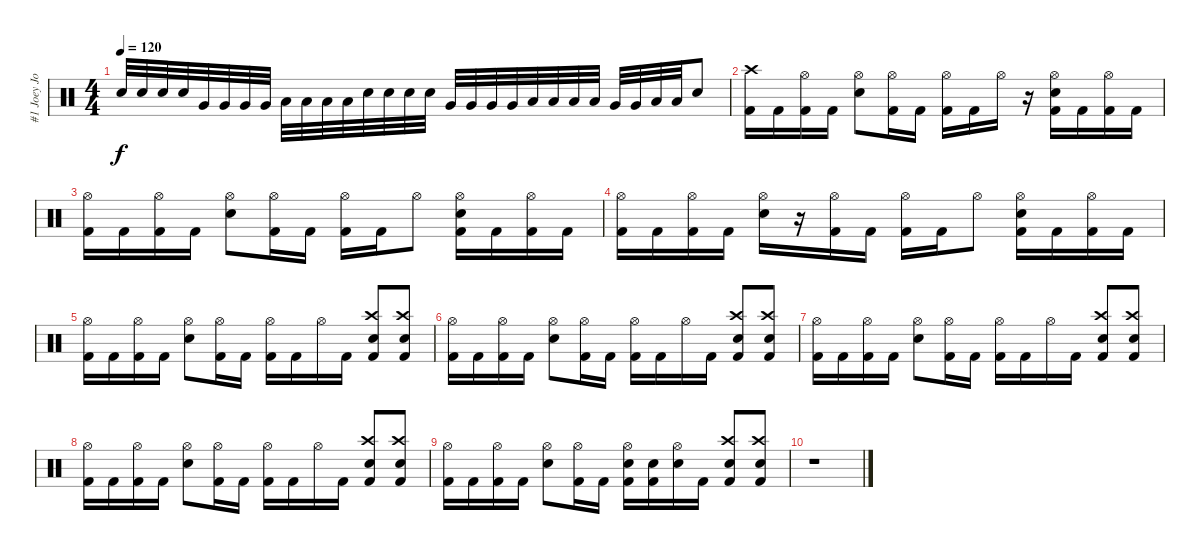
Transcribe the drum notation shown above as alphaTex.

\track ("#1 Joey Jordison" "#1 Joey Jo") {instrument percussion}
\staff {score}
\articulation defaults
\ts (4 4)
\tempo 120
\clef neutral
\ks c "Electric Snare (hit)".32{dy f} "Electric Snare (hit)".32 "Electric Snare (hit)".32 "Electric Snare (hit)".32 "Very Low Tom (hit)".32 "Very Low Tom (hit)".32 "Very Low Tom (hit)".32 "Very Low Tom (hit)".32 "Low Floor Tom (hit)".32 "Low Floor Tom (hit)".32 "Low Floor Tom (hit)".32 "Low Floor Tom (hit)".32 "Electric Snare (hit)".32 "Electric Snare (hit)".32 "Electric Snare (hit)".32 "Electric Snare (hit)".32 "Very Low Tom (hit)".32 "Very Low Tom (hit)".32 "Very Low Tom (hit)".32 "Very Low Tom (hit)".32 "Low Floor Tom (hit)".32 "Low Floor Tom (hit)".32 "Low Floor Tom (hit)".32 "Low Floor Tom (hit)".32 "Very Low Tom (hit)".32 "Very Low Tom (hit)".32 "Low Floor Tom (hit)".32 "Low Floor Tom (hit)".32 "Electric Snare (hit)".8
|
("Crash high (hit)" "Kick (hit) 2").16 "Kick (hit) 2".16 ("Hi-Hat (open)" "Kick (hit) 2").16 "Kick (hit) 2".16 ("Hi-Hat (open)" "Electric Snare (hit)").8 ("Hi-Hat (open)" "Kick (hit) 2").16 "Kick (hit) 2".16 ("Hi-Hat (open)" "Kick (hit) 2").16 "Kick (hit) 2".16 "Hi-Hat (open)".16 r.16 ("Hi-Hat (open)" "Electric Snare (hit)" "Kick (hit) 2").16 "Kick (hit) 2".16 ("Hi-Hat (open)" "Kick (hit) 2").16 "Kick (hit) 2".16 |
("Hi-Hat (open)" "Kick (hit) 2").16 "Kick (hit) 2".16 ("Hi-Hat (open)" "Kick (hit) 2").16 "Kick (hit) 2".16 ("Hi-Hat (open)" "Electric Snare (hit)").8 ("Hi-Hat (open)" "Kick (hit) 2").16 "Kick (hit) 2".16 ("Hi-Hat (open)" "Kick (hit) 2").16 "Kick (hit) 2".16 "Hi-Hat (open)".8 ("Hi-Hat (open)" "Electric Snare (hit)" "Kick (hit) 2").16 "Kick (hit) 2".16 ("Hi-Hat (open)" "Kick (hit) 2").16 "Kick (hit) 2".16 |
("Hi-Hat (open)" "Kick (hit) 2").16 "Kick (hit) 2".16 ("Hi-Hat (open)" "Kick (hit) 2").16 "Kick (hit) 2".16 ("Hi-Hat (open)" "Electric Snare (hit)").16 r.16 ("Hi-Hat (open)" "Kick (hit) 2").16 "Kick (hit) 2".16 ("Hi-Hat (open)" "Kick (hit) 2").16 "Kick (hit) 2".16 "Hi-Hat (open)".8 ("Hi-Hat (open)" "Electric Snare (hit)" "Kick (hit) 2").16 "Kick (hit) 2".16 ("Hi-Hat (open)" "Kick (hit) 2").16 "Kick (hit) 2".16 |
("Hi-Hat (open)" "Kick (hit) 2").16 "Kick (hit) 2".16 ("Hi-Hat (open)" "Kick (hit) 2").16 "Kick (hit) 2".16 ("Hi-Hat (open)" "Electric Snare (hit)").8 ("Hi-Hat (open)" "Kick (hit) 2").16 "Kick (hit) 2".16 ("Hi-Hat (open)" "Kick (hit) 2").16 "Kick (hit) 2".16 "Hi-Hat (open)".16 "Kick (hit) 2".16 ("Electric Snare (hit)" "Crash high (hit)" "Kick (hit) 2").8 ("Electric Snare (hit)" "Crash high (hit)" "Kick (hit) 2").8 |
("Hi-Hat (open)" "Kick (hit) 2").16 "Kick (hit) 2".16 ("Hi-Hat (open)" "Kick (hit) 2").16 "Kick (hit) 2".16 ("Hi-Hat (open)" "Electric Snare (hit)").8 ("Hi-Hat (open)" "Kick (hit) 2").16 "Kick (hit) 2".16 ("Hi-Hat (open)" "Kick (hit) 2").16 "Kick (hit) 2".16 "Hi-Hat (open)".16 "Kick (hit) 2".16 ("Electric Snare (hit)" "Crash high (hit)" "Kick (hit) 2").8 ("Electric Snare (hit)" "Crash high (hit)" "Kick (hit) 2").8 |
("Hi-Hat (open)" "Kick (hit) 2").16 "Kick (hit) 2".16 ("Hi-Hat (open)" "Kick (hit) 2").16 "Kick (hit) 2".16 ("Hi-Hat (open)" "Electric Snare (hit)").8 ("Hi-Hat (open)" "Kick (hit) 2").16 "Kick (hit) 2".16 ("Hi-Hat (open)" "Kick (hit) 2").16 "Kick (hit) 2".16 "Hi-Hat (open)".16 "Kick (hit) 2".16 ("Electric Snare (hit)" "Crash high (hit)" "Kick (hit) 2").8 ("Electric Snare (hit)" "Crash high (hit)" "Kick (hit) 2").8 |
("Hi-Hat (open)" "Kick (hit) 2").16 "Kick (hit) 2".16 ("Hi-Hat (open)" "Kick (hit) 2").16 "Kick (hit) 2".16 ("Hi-Hat (open)" "Electric Snare (hit)").8 ("Hi-Hat (open)" "Kick (hit) 2").16 "Kick (hit) 2".16 ("Hi-Hat (open)" "Kick (hit) 2").16 "Kick (hit) 2".16 "Hi-Hat (open)".16 "Kick (hit) 2".16 ("Electric Snare (hit)" "Crash high (hit)" "Kick (hit) 2").8 ("Electric Snare (hit)" "Crash high (hit)" "Kick (hit) 2").8 |
("Hi-Hat (open)" "Kick (hit) 2").16 "Kick (hit) 2".16 ("Hi-Hat (open)" "Kick (hit) 2").16 "Kick (hit) 2".16 ("Hi-Hat (open)" "Electric Snare (hit)").8 ("Hi-Hat (open)" "Kick (hit) 2").16 "Kick (hit) 2".16 ("Hi-Hat (open)" "Electric Snare (hit)" "Kick (hit) 2").16 ("Electric Snare (hit)" "Kick (hit) 2").16 ("Hi-Hat (open)" "Electric Snare (hit)").16 "Kick (hit) 2".16 ("Electric Snare (hit)" "Crash high (hit)" "Kick (hit) 2").8 ("Electric Snare (hit)" "Crash high (hit)" "Kick (hit) 2").8 |
r.1
